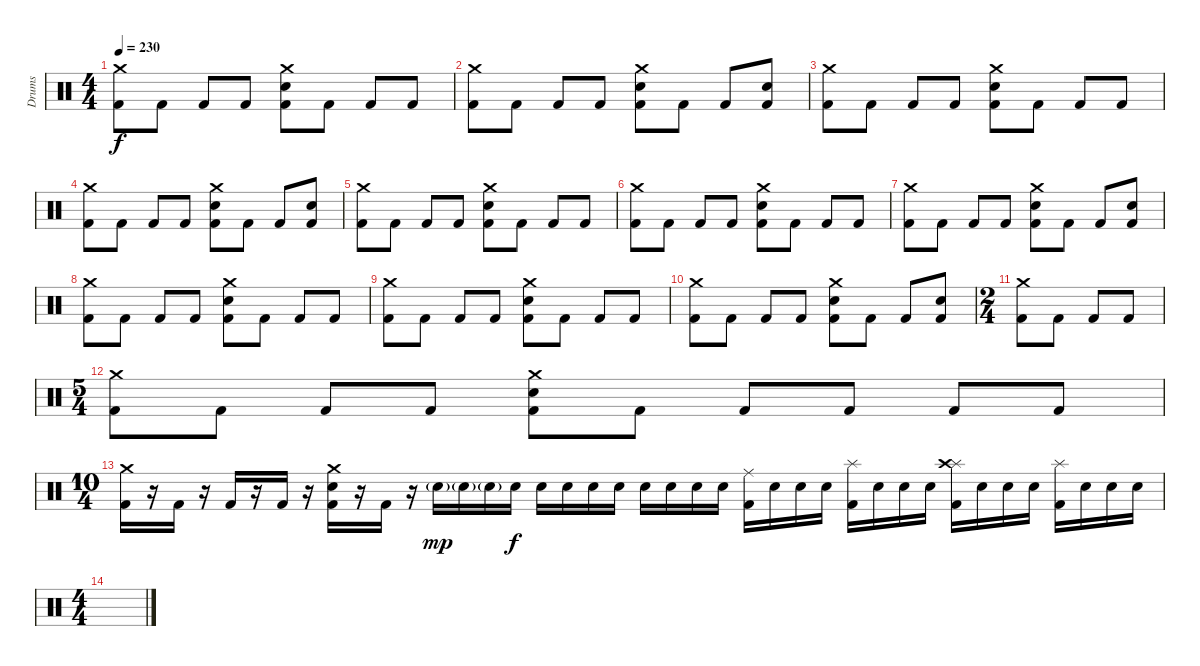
\track ("Drums" "Drums") {instrument percussion}
\staff {score}
\articulation defaults
\ts (4 4)
\tempo 230
\clef neutral
\ks c
("Crash medium (hit)" "Kick (hit) 2").8{dy f} "Kick (hit) 2".8 "Kick (hit) 2".8 "Kick (hit) 2".8 ("Crash medium (hit)" "Electric Snare (hit)" "Kick (hit) 2").8 "Kick (hit) 2".8 "Kick (hit) 2".8 "Kick (hit) 2".8 |
("Crash medium (hit)" "Kick (hit) 2").8 "Kick (hit) 2".8 "Kick (hit) 2".8 "Kick (hit) 2".8 ("Crash medium (hit)" "Electric Snare (hit)" "Kick (hit) 2").8 "Kick (hit) 2".8 "Kick (hit) 2".8 ("Electric Snare (hit)" "Kick (hit) 2").8 |
("Crash medium (hit)" "Kick (hit) 2").8 "Kick (hit) 2".8 "Kick (hit) 2".8 "Kick (hit) 2".8 ("Crash medium (hit)" "Electric Snare (hit)" "Kick (hit) 2").8 "Kick (hit) 2".8 "Kick (hit) 2".8 "Kick (hit) 2".8 |
("Crash medium (hit)" "Kick (hit) 2").8 "Kick (hit) 2".8 "Kick (hit) 2".8 "Kick (hit) 2".8 ("Crash medium (hit)" "Electric Snare (hit)" "Kick (hit) 2").8 "Kick (hit) 2".8 "Kick (hit) 2".8 ("Electric Snare (hit)" "Kick (hit) 2").8 |
("Crash medium (hit)" "Kick (hit) 2").8 "Kick (hit) 2".8 "Kick (hit) 2".8 "Kick (hit) 2".8 ("Crash medium (hit)" "Electric Snare (hit)" "Kick (hit) 2").8 "Kick (hit) 2".8 "Kick (hit) 2".8 "Kick (hit) 2".8 |
("Crash medium (hit)" "Kick (hit) 2").8 "Kick (hit) 2".8 "Kick (hit) 2".8 "Kick (hit) 2".8 ("Crash medium (hit)" "Electric Snare (hit)" "Kick (hit) 2").8 "Kick (hit) 2".8 "Kick (hit) 2".8 "Kick (hit) 2".8 |
("Crash medium (hit)" "Kick (hit) 2").8 "Kick (hit) 2".8 "Kick (hit) 2".8 "Kick (hit) 2".8 ("Crash medium (hit)" "Electric Snare (hit)" "Kick (hit) 2").8 "Kick (hit) 2".8 "Kick (hit) 2".8 ("Electric Snare (hit)" "Kick (hit) 2").8 |
("Crash medium (hit)" "Kick (hit) 2").8 "Kick (hit) 2".8 "Kick (hit) 2".8 "Kick (hit) 2".8 ("Crash medium (hit)" "Electric Snare (hit)" "Kick (hit) 2").8 "Kick (hit) 2".8 "Kick (hit) 2".8 "Kick (hit) 2".8 |
("Crash medium (hit)" "Kick (hit) 2").8 "Kick (hit) 2".8 "Kick (hit) 2".8 "Kick (hit) 2".8 ("Crash medium (hit)" "Electric Snare (hit)" "Kick (hit) 2").8 "Kick (hit) 2".8 "Kick (hit) 2".8 "Kick (hit) 2".8 |
("Crash medium (hit)" "Kick (hit) 2").8 "Kick (hit) 2".8 "Kick (hit) 2".8 "Kick (hit) 2".8 ("Crash medium (hit)" "Electric Snare (hit)" "Kick (hit) 2").8 "Kick (hit) 2".8 "Kick (hit) 2".8 ("Electric Snare (hit)" "Kick (hit) 2").8 |
\ts (2 4)
("Crash medium (hit)" "Kick (hit) 2").8 "Kick (hit) 2".8 "Kick (hit) 2".8 "Kick (hit) 2".8 |
\ts (5 4)
("Crash medium (hit)" "Kick (hit) 2").8 "Kick (hit) 2".8 "Kick (hit) 2".8 "Kick (hit) 2".8 ("Crash medium (hit)" "Electric Snare (hit)" "Kick (hit) 2").8 "Kick (hit) 2".8 "Kick (hit) 2".8 "Kick (hit) 2".8 "Kick (hit) 2".8 "Kick (hit) 2".8 |
\ts (10 4)
("Crash medium (hit)" "Kick (hit) 2").16 r.16 "Kick (hit) 2".16 r.16 "Kick (hit) 2".16 r.16 "Kick (hit) 2".16 r.16 ("Crash medium (hit)" "Electric Snare (hit)" "Kick (hit) 2").16 r.16 "Kick (hit) 2".16 r.16 "Electric Snare (hit)"{g}.16{dy mp} "Electric Snare (hit)"{g}.16 "Electric Snare (hit)"{g}.16 "Electric Snare (hit)".16{dy f} "Electric Snare (hit)".16 "Electric Snare (hit)".16 "Electric Snare (hit)".16 "Electric Snare (hit)".16 "Electric Snare (hit)".16 "Electric Snare (hit)".16 "Electric Snare (hit)".16 "Electric Snare (hit)".16 ("Ride (middle)" "Kick (hit) 2").16 "Snare (hit)".16 "Snare (hit)".16 "Snare (hit)".16 ("Splash (hit)" "Kick (hit) 2").16 "Snare (hit)".16 "Snare (hit)".16 "Snare (hit)".16 ("Splash (hit)" "Crash high (hit)" "Kick (hit) 2").16 "Snare (hit)".16 "Snare (hit)".16 "Snare (hit)".16 ("Splash (hit)" "Kick (hit) 2").16 "Snare (hit)".16 "Snare (hit)".16 "Snare (hit)".16 |
\ts (4 4)
